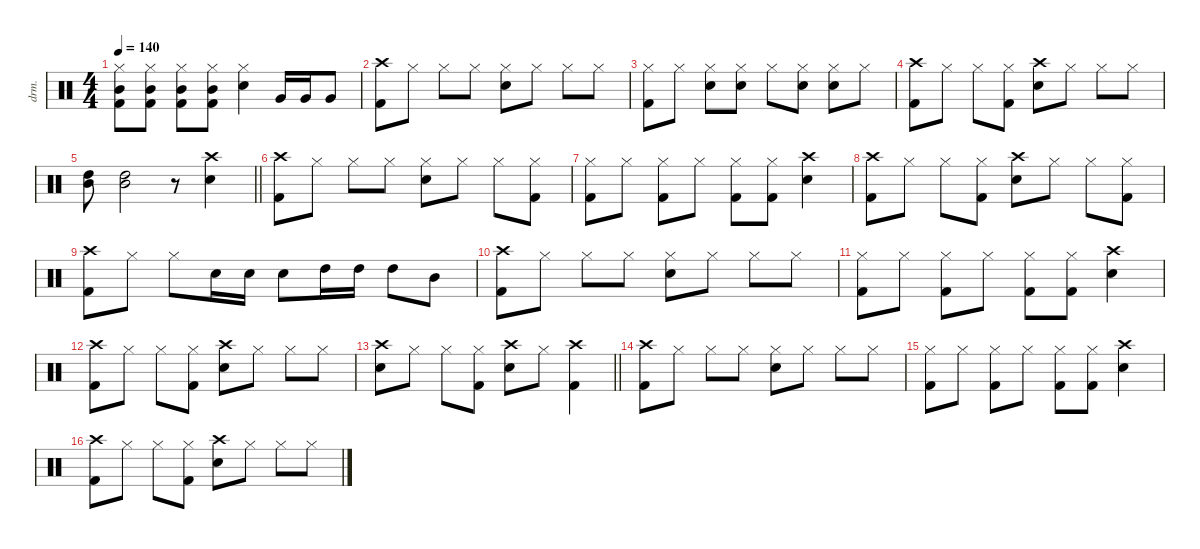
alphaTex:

\defaultSystemsLayout 4
\hideDynamics
\bracketExtendMode nobrackets
\otherSystemsTrackNameOrientation horizontal
\track ("Drums" "drm.") {defaultSystemsLayout 4 instrument percussion}
\staff {score}
\articulation defaults
\ts (4 4)
\tempo 140
\clef neutral
\ks c
("Hi-Hat (closed)" "Mid Tom (hit)" "Kick (hit) 2").8{dy f beam Down} ("Hi-Hat (closed)" "Mid Tom (hit)" "Kick (hit) 2").8{beam Down} ("Hi-Hat (closed)" "Mid Tom (hit)" "Kick (hit) 2").8{beam Down} ("Hi-Hat (closed)" "Mid Tom (hit)" "Kick (hit) 2").8{beam Down} ("Hi-Hat (closed)" "Snare (hit) 2").4{beam Down} "Very Low Tom (hit)".16{beam Up} "Very Low Tom (hit)".16{beam Up} "Very Low Tom (hit)".8{beam Up} |
("Crash high (hit)" "Kick (hit) 2").8{beam Down} "Hi-Hat (closed)".8{beam Down} "Hi-Hat (closed)".8{beam Down} "Hi-Hat (closed)".8{beam Down} ("Hi-Hat (closed)" "Snare (hit) 2").8{beam Down} "Hi-Hat (closed)".8{beam Down} "Hi-Hat (closed)".8{beam Down} "Hi-Hat (closed)".8{beam Down} |
("Hi-Hat (closed)" "Kick (hit) 2").8{beam Down} "Hi-Hat (closed)".8{beam Down} ("Hi-Hat (closed)" "Snare (hit) 2").8{beam Down} ("Hi-Hat (closed)" "Snare (hit) 2").8{beam Down} "Hi-Hat (closed)".8{beam Down} ("Hi-Hat (closed)" "Snare (hit) 2").8{beam Down} ("Hi-Hat (closed)" "Snare (hit) 2").8{beam Down} "Hi-Hat (closed)".8{beam Down} |
("Crash high (hit)" "Kick (hit) 2").8{beam Down} "Hi-Hat (closed)".8{beam Down} "Hi-Hat (closed)".8{beam Down} ("Hi-Hat (closed)" "Kick (hit) 2").8{beam Down} ("Crash high (hit)" "Snare (hit) 2").8{beam Down} "Hi-Hat (closed)".8{beam Down} "Hi-Hat (closed)".8{beam Down} "Hi-Hat (closed)".8{beam Down} |
\barLineRight lightlight
("High Tom (hit)" "Mid Tom (hit)").8{beam Down} ("High Tom (hit)" "Mid Tom (hit)").2{beam Down} r.8{beam Down} ("Crash high (hit)" "Snare (hit) 2").4{beam Down} |
("Crash high (hit)" "Kick (hit) 2").8{beam Down} "Hi-Hat (closed)".8{beam Down} "Hi-Hat (closed)".8{beam Down} "Hi-Hat (closed)".8{beam Down} ("Hi-Hat (closed)" "Snare (hit) 2").8{beam Down} "Hi-Hat (closed)".8{beam Down} "Hi-Hat (closed)".8{beam Down} ("Hi-Hat (closed)" "Kick (hit) 2").8{beam Down} |
("Hi-Hat (closed)" "Kick (hit) 2").8{beam Down} "Hi-Hat (closed)".8{beam Down} ("Hi-Hat (closed)" "Kick (hit) 2").8{beam Down} "Hi-Hat (closed)".8{beam Down} ("Hi-Hat (closed)" "Kick (hit) 2").8{beam Down} ("Hi-Hat (closed)" "Kick (hit) 2").8{beam Down} ("Crash high (hit)" "Snare (hit) 2").4{beam Down} |
("Crash high (hit)" "Kick (hit) 2").8{beam Down} "Hi-Hat (closed)".8{beam Down} "Hi-Hat (closed)".8{beam Down} ("Hi-Hat (closed)" "Kick (hit) 2").8{beam Down} ("Crash high (hit)" "Snare (hit) 2").8{beam Down} "Hi-Hat (closed)".8{beam Down} "Hi-Hat (closed)".8{beam Down} ("Hi-Hat (closed)" "Kick (hit) 2").8{beam Down} |
("Crash high (hit)" "Kick (hit) 2").8{beam Down} "Hi-Hat (closed)".8{beam Down} "Hi-Hat (closed)".8{beam Down} "Snare (hit) 2".16{beam Down} "Snare (hit) 2".16{beam Down} "Snare (hit) 2".8{beam Down} "High Tom (hit)".16{beam Down} "High Tom (hit)".16{beam Down} "High Tom (hit)".8{beam Down} "Mid Tom (hit)".8{beam Down} |
("Crash high (hit)" "Kick (hit) 2").8{beam Down} "Hi-Hat (closed)".8{beam Down} "Hi-Hat (closed)".8{beam Down} "Hi-Hat (closed)".8{beam Down} ("Hi-Hat (closed)" "Snare (hit) 2").8{beam Down} "Hi-Hat (closed)".8{beam Down} "Hi-Hat (closed)".8{beam Down} "Hi-Hat (closed)".8{beam Down} |
("Hi-Hat (closed)" "Kick (hit) 2").8{beam Down} "Hi-Hat (closed)".8{beam Down} ("Hi-Hat (closed)" "Kick (hit) 2").8{beam Down} "Hi-Hat (closed)".8{beam Down} ("Hi-Hat (closed)" "Kick (hit) 2").8{beam Down} ("Hi-Hat (closed)" "Kick (hit) 2").8{beam Down} ("Crash high (hit)" "Snare (hit) 2").4{beam Down} |
("Crash high (hit)" "Kick (hit) 2").8{beam Down} "Hi-Hat (closed)".8{beam Down} "Hi-Hat (closed)".8{beam Down} ("Hi-Hat (closed)" "Kick (hit) 2").8{beam Down} ("Crash high (hit)" "Snare (hit) 2").8{beam Down} "Hi-Hat (closed)".8{beam Down} "Hi-Hat (closed)".8{beam Down} "Hi-Hat (closed)".8{beam Down} |
\barLineRight lightlight
("Crash high (hit)" "Snare (hit) 2").8{beam Down} "Hi-Hat (closed)".8{beam Down} "Hi-Hat (closed)".8{beam Down} ("Hi-Hat (closed)" "Kick (hit) 2").8{beam Down} ("Crash high (hit)" "Snare (hit) 2").8{beam Down} "Hi-Hat (closed)".8{beam Down} ("Crash high (hit)" "Kick (hit) 2").4{beam Down} |
("Crash high (hit)" "Kick (hit) 2").8{beam Down} "Hi-Hat (closed)".8{beam Down} "Hi-Hat (closed)".8{beam Down} "Hi-Hat (closed)".8{beam Down} ("Hi-Hat (closed)" "Snare (hit) 2").8{beam Down} "Hi-Hat (closed)".8{beam Down} "Hi-Hat (closed)".8{beam Down} "Hi-Hat (closed)".8{beam Down} |
("Hi-Hat (closed)" "Kick (hit) 2").8{beam Down} "Hi-Hat (closed)".8{beam Down} ("Hi-Hat (closed)" "Kick (hit) 2").8{beam Down} "Hi-Hat (closed)".8{beam Down} ("Hi-Hat (closed)" "Kick (hit) 2").8{beam Down} ("Hi-Hat (closed)" "Kick (hit) 2").8{beam Down} ("Crash high (hit)" "Snare (hit) 2").4{beam Down} |
("Crash high (hit)" "Kick (hit) 2").8{beam Down} "Hi-Hat (closed)".8{beam Down} "Hi-Hat (closed)".8{beam Down} ("Hi-Hat (closed)" "Kick (hit) 2").8{beam Down} ("Crash high (hit)" "Snare (hit) 2").8{beam Down} "Hi-Hat (closed)".8{beam Down} "Hi-Hat (closed)".8{beam Down} "Hi-Hat (closed)".8{beam Down}
